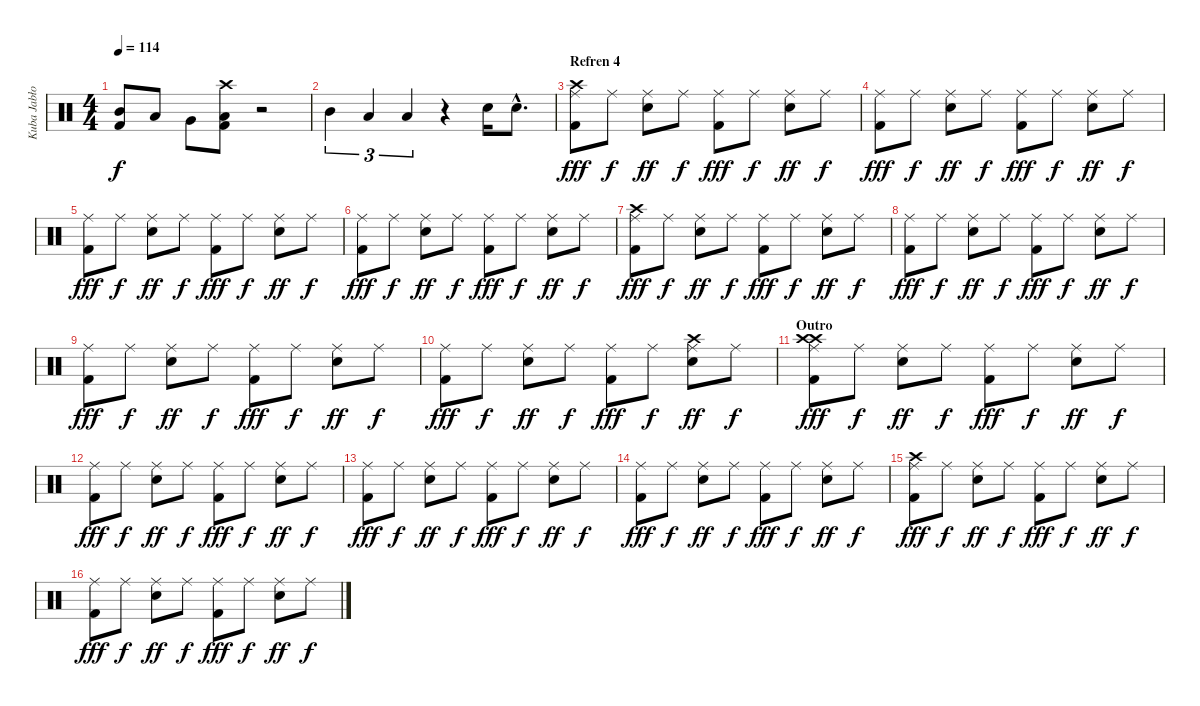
\track ("Kuba Jabłoński" "Kuba Jabło") {instrument percussion}
\staff {score}
\articulation defaults
\ts (4 4)
\tempo 114
\clef neutral
\ks c
("Kick (hit) 2" "Mid Tom (hit)").8{dy f} "Low Tom (hit)".8 "Very Low Tom (hit)".8 ("Kick (hit) 2" "Low Floor Tom (hit)" "Crash high (hit)").8 r.2 |
"Mid Tom (hit)".4{tu (3 2)} "Low Tom (hit)".4{tu (3 2)} "Low Floor Tom (hit)".4{tu (3 2)} r.4 "Snare (hit) 2".16 "Snare (hit) 2"{hac}.8{d} |
\section ("" "Refren 4")
("Kick (hit) 2" "Ride (middle)" "Crash high (hit)").8{dy fff} "Ride (middle)".8{dy f} ("Snare (hit) 2" "Ride (middle)").8{dy ff} "Ride (middle)".8{dy f} ("Kick (hit) 2" "Ride (middle)").8{dy fff} "Ride (middle)".8{dy f} ("Snare (hit) 2" "Ride (middle)").8{dy ff} "Ride (middle)".8{dy f} |
("Kick (hit) 2" "Ride (middle)").8{dy fff} "Ride (middle)".8{dy f} ("Snare (hit) 2" "Ride (middle)").8{dy ff} "Ride (middle)".8{dy f} ("Kick (hit) 2" "Ride (middle)").8{dy fff} "Ride (middle)".8{dy f} ("Snare (hit) 2" "Ride (middle)").8{dy ff} "Ride (middle)".8{dy f} |
("Kick (hit) 2" "Ride (middle)").8{dy fff} "Ride (middle)".8{dy f} ("Snare (hit) 2" "Ride (middle)").8{dy ff} "Ride (middle)".8{dy f} ("Kick (hit) 2" "Ride (middle)").8{dy fff} "Ride (middle)".8{dy f} ("Snare (hit) 2" "Ride (middle)").8{dy ff} "Ride (middle)".8{dy f} |
("Kick (hit) 2" "Ride (middle)").8{dy fff} "Ride (middle)".8{dy f} ("Snare (hit) 2" "Ride (middle)").8{dy ff} "Ride (middle)".8{dy f} ("Kick (hit) 2" "Ride (middle)").8{dy fff} "Ride (middle)".8{dy f} ("Snare (hit) 2" "Ride (middle)").8{dy ff} "Ride (middle)".8{dy f} |
("Crash high (hit)" "Kick (hit) 2" "Ride (middle)").8{dy fff} "Ride (middle)".8{dy f} ("Snare (hit) 2" "Ride (middle)").8{dy ff} "Ride (middle)".8{dy f} ("Kick (hit) 2" "Ride (middle)").8{dy fff} "Ride (middle)".8{dy f} ("Snare (hit) 2" "Ride (middle)").8{dy ff} "Ride (middle)".8{dy f} |
("Kick (hit) 2" "Ride (middle)").8{dy fff} "Ride (middle)".8{dy f} ("Snare (hit) 2" "Ride (middle)").8{dy ff} "Ride (middle)".8{dy f} ("Kick (hit) 2" "Ride (middle)").8{dy fff} "Ride (middle)".8{dy f} ("Snare (hit) 2" "Ride (middle)").8{dy ff} "Ride (middle)".8{dy f} |
("Kick (hit) 2" "Ride (middle)").8{dy fff} "Ride (middle)".8{dy f} ("Snare (hit) 2" "Ride (middle)").8{dy ff} "Ride (middle)".8{dy f} ("Kick (hit) 2" "Ride (middle)").8{dy fff} "Ride (middle)".8{dy f} ("Snare (hit) 2" "Ride (middle)").8{dy ff} "Ride (middle)".8{dy f} |
("Kick (hit) 2" "Ride (middle)").8{dy fff} "Ride (middle)".8{dy f} ("Snare (hit) 2" "Ride (middle)").8{dy ff} "Ride (middle)".8{dy f} ("Kick (hit) 2" "Ride (middle)").8{dy fff} "Ride (middle)".8{dy f} ("Crash high (hit)" "Snare (hit) 2" "Ride (middle)").8{dy ff} "Ride (middle)".8{dy f} |
\section ("" "Outro")
("Crash high (hit)" "Kick (hit) 2" "Ride (middle)" "Crash high (hit)").8{dy fff} "Ride (middle)".8{dy f} ("Snare (hit) 2" "Ride (middle)").8{dy ff} "Ride (middle)".8{dy f} ("Kick (hit) 2" "Ride (middle)").8{dy fff} "Ride (middle)".8{dy f} ("Snare (hit) 2" "Ride (middle)").8{dy ff} "Ride (middle)".8{dy f} |
("Kick (hit) 2" "Ride (middle)").8{dy fff} "Ride (middle)".8{dy f} ("Snare (hit) 2" "Ride (middle)").8{dy ff} "Ride (middle)".8{dy f} ("Kick (hit) 2" "Ride (middle)").8{dy fff} "Ride (middle)".8{dy f} ("Snare (hit) 2" "Ride (middle)").8{dy ff} "Ride (middle)".8{dy f} |
("Kick (hit) 2" "Ride (middle)").8{dy fff} "Ride (middle)".8{dy f} ("Snare (hit) 2" "Ride (middle)").8{dy ff} "Ride (middle)".8{dy f} ("Kick (hit) 2" "Ride (middle)").8{dy fff} "Ride (middle)".8{dy f} ("Snare (hit) 2" "Ride (middle)").8{dy ff} "Ride (middle)".8{dy f} |
("Kick (hit) 2" "Ride (middle)").8{dy fff} "Ride (middle)".8{dy f} ("Snare (hit) 2" "Ride (middle)").8{dy ff} "Ride (middle)".8{dy f} ("Kick (hit) 2" "Ride (middle)").8{dy fff} "Ride (middle)".8{dy f} ("Snare (hit) 2" "Ride (middle)").8{dy ff} "Ride (middle)".8{dy f} |
("Crash high (hit)" "Kick (hit) 2" "Ride (middle)").8{dy fff} "Ride (middle)".8{dy f} ("Snare (hit) 2" "Ride (middle)").8{dy ff} "Ride (middle)".8{dy f} ("Kick (hit) 2" "Ride (middle)").8{dy fff} "Ride (middle)".8{dy f} ("Snare (hit) 2" "Ride (middle)").8{dy ff} "Ride (middle)".8{dy f} |
("Kick (hit) 2" "Ride (middle)").8{dy fff} "Ride (middle)".8{dy f} ("Snare (hit) 2" "Ride (middle)").8{dy ff} "Ride (middle)".8{dy f} ("Kick (hit) 2" "Ride (middle)").8{dy fff} "Ride (middle)".8{dy f} ("Snare (hit) 2" "Ride (middle)").8{dy ff} "Ride (middle)".8{dy f}
